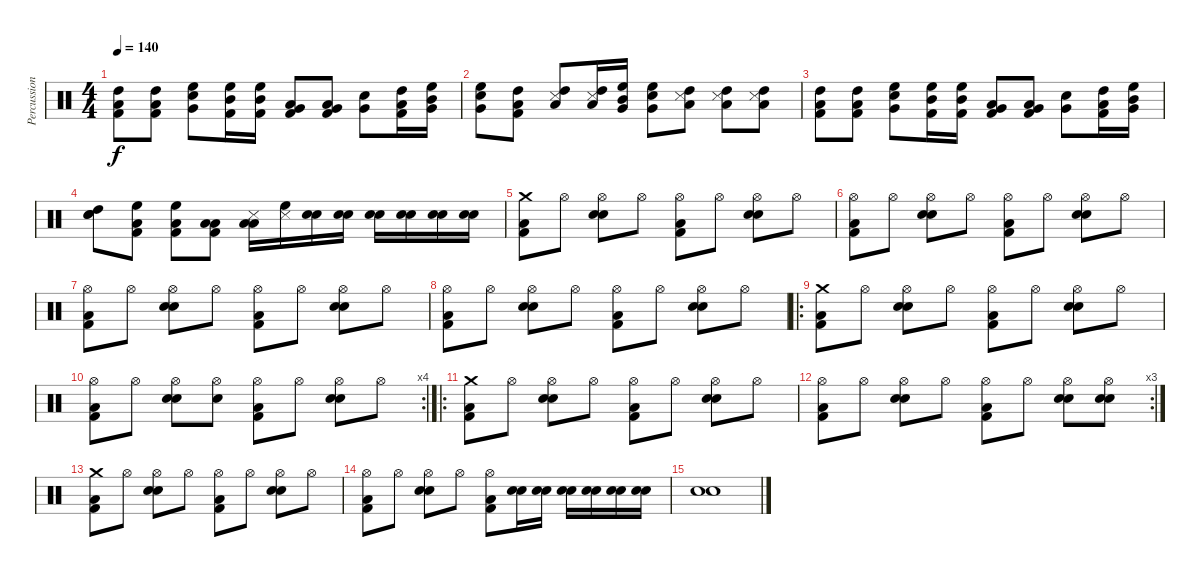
\track ("Percussions" "Percussion") {instrument percussion}
\staff {score}
\articulation defaults
\ts (4 4)
\tempo 140
\clef neutral
\ks c
("Low Floor Tom (hit)" "Kick (hit) 2" "High Tom (hit)").8{dy f} ("Low Floor Tom (hit)" "Kick (hit) 2" "High Tom (hit)").8 ("Snare (hit) 2" "Very Low Tom (hit)" "High Floor Tom (hit)").8 ("Mid Tom (hit)" "Kick (hit) 2" "High Floor Tom (hit)").16 ("Mid Tom (hit)" "Kick (hit) 2" "High Floor Tom (hit)").16 ("Low Floor Tom (hit)" "Kick (hit) 2" "Very Low Tom (hit)").8 ("Low Floor Tom (hit)" "Kick (hit) 2" "Very Low Tom (hit)").8 ("Snare (hit) 2" "Very Low Tom (hit)").8 ("Low Floor Tom (hit)" "Kick (hit) 2" "High Tom (hit)").16 ("Mid Tom (hit)" "Very Low Tom (hit)" "High Floor Tom (hit)").16 |
("Snare (hit) 2" "Very Low Tom (hit)" "High Floor Tom (hit)").8 ("Low Floor Tom (hit)" "Kick (hit) 2" "High Tom (hit)").8 ("Low Floor Tom (hit)" "Snare (side stick) 3" "High Tom (hit)").8 ("Low Floor Tom (hit)" "Snare (side stick) 3" "High Tom (hit)").16 ("Mid Tom (hit)" "Very Low Tom (hit)" "High Floor Tom (hit)").16 ("Snare (hit) 2" "Very Low Tom (hit)" "High Floor Tom (hit)").8 ("Low Floor Tom (hit)" "Snare (side stick) 3" "High Tom (hit)").8 ("Low Floor Tom (hit)" "Snare (side stick) 3" "High Tom (hit)").8 ("Low Floor Tom (hit)" "Snare (side stick) 3" "High Tom (hit)").8 |
("Low Floor Tom (hit)" "Kick (hit) 2" "High Tom (hit)").8 ("Low Floor Tom (hit)" "Kick (hit) 2" "High Tom (hit)").8 ("Snare (hit) 2" "Very Low Tom (hit)" "High Floor Tom (hit)").8 ("Mid Tom (hit)" "Kick (hit) 2" "High Floor Tom (hit)").16 ("Mid Tom (hit)" "Kick (hit) 2" "High Floor Tom (hit)").16 ("Low Floor Tom (hit)" "Kick (hit) 2" "Very Low Tom (hit)").8 ("Low Floor Tom (hit)" "Kick (hit) 2" "Very Low Tom (hit)").8 ("Snare (hit) 2" "Very Low Tom (hit)").8 ("Low Floor Tom (hit)" "Kick (hit) 2" "High Tom (hit)").16 ("Mid Tom (hit)" "Very Low Tom (hit)" "High Floor Tom (hit)").16 |
("High Tom (hit)" "Snare (hit) 2" "Electric Snare (hit)").8 ("High Floor Tom (hit)" "Kick (hit) 2" "Low Floor Tom (hit)").8 ("High Floor Tom (hit)" "Kick (hit) 2" "Low Floor Tom (hit)").8 ("Low Floor Tom (hit)" "Kick (hit) 2" "Low Floor Tom (hit)").8 ("Low Floor Tom (hit)" "Snare (side stick) 3" "Low Floor Tom (hit)").16 ("Snare (side stick) 3" "High Floor Tom (hit)").16 ("Snare (hit) 2" "Electric Snare (hit)").16 ("Snare (hit) 2" "Electric Snare (hit)").16 ("Snare (hit) 2" "Electric Snare (hit)").16 ("Snare (hit) 2" "Electric Snare (hit)").16 ("Snare (hit) 2" "Electric Snare (hit)").16 ("Snare (hit) 2" "Electric Snare (hit)").16 |
("Crash medium (hit)" "Kick (hit) 2" "Low Floor Tom (hit)").8 "Hi-Hat (open)".8 ("Hi-Hat (open)" "Snare (hit) 2" "Electric Snare (hit)").8 "Hi-Hat (open)".8 ("Hi-Hat (open)" "Kick (hit) 2" "Low Floor Tom (hit)").8 "Hi-Hat (open)".8 ("Hi-Hat (open)" "Snare (hit) 2" "Electric Snare (hit)").8 "Hi-Hat (open)".8 |
("Hi-Hat (open)" "Kick (hit) 2" "Low Floor Tom (hit)").8 "Hi-Hat (open)".8 ("Hi-Hat (open)" "Snare (hit) 2" "Electric Snare (hit)").8 "Hi-Hat (open)".8 ("Hi-Hat (open)" "Kick (hit) 2" "Low Floor Tom (hit)").8 "Hi-Hat (open)".8 ("Hi-Hat (open)" "Snare (hit) 2" "Electric Snare (hit)").8 "Hi-Hat (open)".8 |
("Hi-Hat (open)" "Kick (hit) 2" "Low Floor Tom (hit)").8 "Hi-Hat (open)".8 ("Hi-Hat (open)" "Snare (hit) 2" "Electric Snare (hit)").8 "Hi-Hat (open)".8 ("Hi-Hat (open)" "Kick (hit) 2" "Low Floor Tom (hit)").8 "Hi-Hat (open)".8 ("Hi-Hat (open)" "Snare (hit) 2" "Electric Snare (hit)").8 "Hi-Hat (open)".8 |
("Hi-Hat (open)" "Kick (hit) 2" "Low Floor Tom (hit)").8 "Hi-Hat (open)".8 ("Hi-Hat (open)" "Snare (hit) 2" "Electric Snare (hit)").8 "Hi-Hat (open)".8 ("Hi-Hat (open)" "Kick (hit) 2" "Low Floor Tom (hit)").8 "Hi-Hat (open)".8 ("Hi-Hat (open)" "Snare (hit) 2" "Electric Snare (hit)").8 "Hi-Hat (open)".8 |
\ro
("Crash medium (hit)" "Kick (hit) 2" "Low Floor Tom (hit)").8 "Hi-Hat (open)".8 ("Hi-Hat (open)" "Snare (hit) 2" "Electric Snare (hit)").8 "Hi-Hat (open)".8 ("Hi-Hat (open)" "Kick (hit) 2" "Low Floor Tom (hit)").8 "Hi-Hat (open)".8 ("Hi-Hat (open)" "Snare (hit) 2" "Electric Snare (hit)").8 "Hi-Hat (open)".8 |
\rc 4
("Hi-Hat (open)" "Kick (hit) 2" "Low Floor Tom (hit)").8 "Hi-Hat (open)".8 ("Hi-Hat (open)" "Snare (hit) 2" "Electric Snare (hit)").8 ("Hi-Hat (open)" "Snare (hit) 2").8 ("Hi-Hat (open)" "Kick (hit) 2" "Low Floor Tom (hit)").8 "Hi-Hat (open)".8 ("Hi-Hat (open)" "Snare (hit) 2" "Electric Snare (hit)").8 "Hi-Hat (open)".8 |
\ro
("Crash medium (hit)" "Kick (hit) 2" "Low Floor Tom (hit)").8 "Hi-Hat (open)".8 ("Hi-Hat (open)" "Snare (hit) 2" "Electric Snare (hit)").8 "Hi-Hat (open)".8 ("Hi-Hat (open)" "Kick (hit) 2" "Low Floor Tom (hit)").8 "Hi-Hat (open)".8 ("Hi-Hat (open)" "Snare (hit) 2" "Electric Snare (hit)").8 "Hi-Hat (open)".8 |
\rc 3
("Hi-Hat (open)" "Kick (hit) 2" "Low Floor Tom (hit)").8 "Hi-Hat (open)".8 ("Hi-Hat (open)" "Snare (hit) 2" "Electric Snare (hit)").8 "Hi-Hat (open)".8 ("Hi-Hat (open)" "Kick (hit) 2" "Low Floor Tom (hit)").8 "Hi-Hat (open)".8 ("Hi-Hat (open)" "Snare (hit) 2" "Electric Snare (hit)").8 ("Hi-Hat (open)" "Snare (hit) 2" "Electric Snare (hit)").8 |
("Crash medium (hit)" "Kick (hit) 2" "Low Floor Tom (hit)").8 "Hi-Hat (open)".8 ("Hi-Hat (open)" "Snare (hit) 2" "Electric Snare (hit)").8 "Hi-Hat (open)".8 ("Hi-Hat (open)" "Kick (hit) 2" "Low Floor Tom (hit)").8 "Hi-Hat (open)".8 ("Hi-Hat (open)" "Snare (hit) 2" "Electric Snare (hit)").8 "Hi-Hat (open)".8 |
("Hi-Hat (open)" "Kick (hit) 2" "Low Floor Tom (hit)").8 "Hi-Hat (open)".8 ("Hi-Hat (open)" "Snare (hit) 2" "Electric Snare (hit)").8 "Hi-Hat (open)".8 ("Hi-Hat (open)" "Kick (hit) 2" "Low Floor Tom (hit)").8 ("Snare (hit) 2" "Electric Snare (hit)").16 ("Snare (hit) 2" "Electric Snare (hit)").16 ("Snare (hit) 2" "Electric Snare (hit)").16 ("Snare (hit) 2" "Electric Snare (hit)").16 ("Snare (hit) 2" "Electric Snare (hit)").16 ("Snare (hit) 2" "Electric Snare (hit)").16 |
("Snare (hit) 2" "Electric Snare (hit)").1
